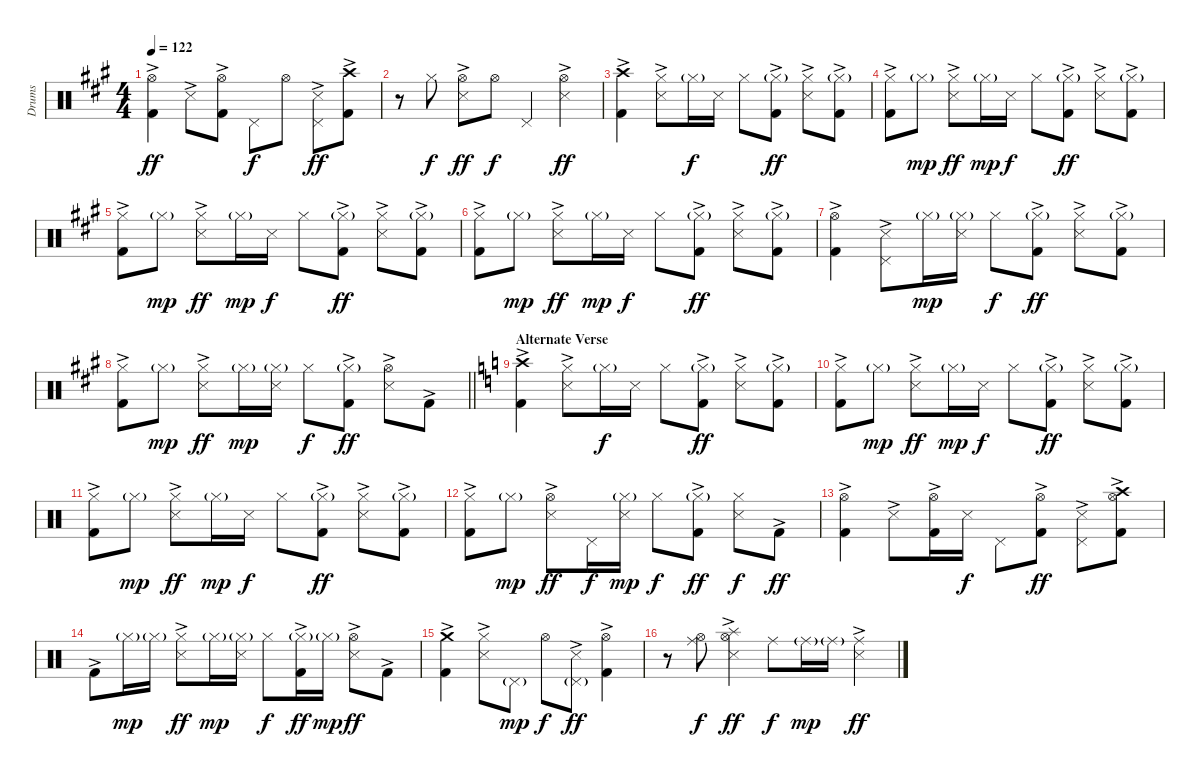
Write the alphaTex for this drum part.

\track ("Drums" "Drums") {instrument percussion}
\staff {score}
\articulation defaults
\ts (4 4)
\tempo 122
\clef neutral
\ks a
("Hi-Hat (open)" "Kick (hit) 2"{ac}).4{dy ff} "Snare (side stick) 3"{ac}.8 ("Hi-Hat (open)" "Kick (hit) 2"{ac}).8 "Pedal Hi-Hat (hit)".8{dy f} "Hi-Hat (open)".8 ("Pedal Hi-Hat (hit)" "Snare (side stick) 3"{ac}).8{dy ff} ("Crash high (hit)" "Kick (hit) 2"{ac}).8 |
r.8 "Hi-Hat (closed)".8{dy f} ("Hi-Hat (open)" "Snare (side stick) 3"{ac}).8{dy ff} "Hi-Hat (open)".8{dy f} "Pedal Hi-Hat (hit)".4 ("Hi-Hat (open)" "Snare (side stick) 3"{ac}).4{dy ff} |
("Crash high (hit)" "Kick (hit) 2"{ac}).4 ("Hi-Hat (closed)" "Snare (side stick) 3"{ac}).8 "Hi-Hat (closed)"{g}.16{dy f} "Snare (side stick) 3".16 "Hi-Hat (closed)".8 ("Hi-Hat (closed)"{g} "Kick (hit) 2"{ac}).8{dy ff} ("Hi-Hat (closed)" "Snare (side stick) 3"{ac}).8 ("Hi-Hat (closed)"{g} "Kick (hit) 2"{ac}).8 |
("Hi-Hat (closed)" "Kick (hit) 2"{ac}).8 "Hi-Hat (closed)"{g}.8{dy mp} ("Hi-Hat (closed)" "Snare (side stick) 3"{ac}).8{dy ff} "Hi-Hat (closed)"{g}.16{dy mp} "Snare (side stick) 3".16{dy f} "Hi-Hat (closed)".8 ("Hi-Hat (closed)"{g} "Kick (hit) 2"{ac}).8{dy ff} ("Hi-Hat (closed)" "Snare (side stick) 3"{ac}).8 ("Hi-Hat (closed)"{g} "Kick (hit) 2"{ac}).8 |
("Hi-Hat (closed)" "Kick (hit) 2"{ac}).8 "Hi-Hat (closed)"{g}.8{dy mp} ("Hi-Hat (closed)" "Snare (side stick) 3"{ac}).8{dy ff} "Hi-Hat (closed)"{g}.16{dy mp} "Snare (side stick) 3".16{dy f} "Hi-Hat (closed)".8 ("Hi-Hat (closed)"{g} "Kick (hit) 2"{ac}).8{dy ff} ("Hi-Hat (closed)" "Snare (side stick) 3"{ac}).8 ("Hi-Hat (closed)"{g} "Kick (hit) 2"{ac}).8 |
("Hi-Hat (closed)" "Kick (hit) 2"{ac}).8 "Hi-Hat (closed)"{g}.8{dy mp} ("Hi-Hat (closed)" "Snare (side stick) 3"{ac}).8{dy ff} "Hi-Hat (closed)"{g}.16{dy mp} "Snare (side stick) 3".16{dy f} "Hi-Hat (closed)".8 ("Hi-Hat (closed)"{g} "Kick (hit) 2"{ac}).8{dy ff} ("Hi-Hat (closed)" "Snare (side stick) 3"{ac}).8 ("Hi-Hat (closed)"{g} "Kick (hit) 2"{ac}).8 |
("Hi-Hat (open)" "Kick (hit) 2"{ac}).4 ("Pedal Hi-Hat (hit)" "Snare (side stick) 3"{ac}).8 "Hi-Hat (closed)"{g}.16{dy mp} ("Hi-Hat (closed)"{g} "Snare (side stick) 3").16 "Hi-Hat (closed)".8{dy f} ("Hi-Hat (closed)"{g} "Kick (hit) 2"{ac}).8{dy ff} ("Hi-Hat (closed)" "Snare (side stick) 3"{ac}).8 ("Hi-Hat (closed)"{g} "Kick (hit) 2"{ac}).8 |
\barLineRight lightlight
("Hi-Hat (closed)" "Kick (hit) 2"{ac}).8 "Hi-Hat (closed)"{g}.8{dy mp} ("Hi-Hat (closed)" "Snare (side stick) 3"{ac}).8{dy ff} "Hi-Hat (closed)"{g}.16{dy mp} ("Hi-Hat (closed)"{g} "Snare (side stick) 3").16 "Hi-Hat (closed)".8{dy f} ("Hi-Hat (closed)"{g} "Kick (hit) 2"{ac}).8{dy ff} ("Hi-Hat (open)" "Snare (side stick) 3"{ac}).8 "Kick (hit) 2"{ac}.8 |
\section ("" "Alternate Verse")
\ks c
("Crash high (hit)" "Kick (hit) 2"{ac}).4 ("Hi-Hat (closed)" "Snare (side stick) 3"{ac}).8 "Hi-Hat (closed)"{g}.16{dy f} "Snare (side stick) 3".16 "Hi-Hat (closed)".8 ("Hi-Hat (closed)"{g} "Kick (hit) 2"{ac}).8{dy ff} ("Hi-Hat (closed)" "Snare (side stick) 3"{ac}).8 ("Hi-Hat (closed)"{g} "Kick (hit) 2"{ac}).8 |
("Hi-Hat (closed)" "Kick (hit) 2"{ac}).8 "Hi-Hat (closed)"{g}.8{dy mp} ("Hi-Hat (closed)" "Snare (side stick) 3"{ac}).8{dy ff} "Hi-Hat (closed)"{g}.16{dy mp} "Snare (side stick) 3".16{dy f} "Hi-Hat (closed)".8 ("Hi-Hat (closed)"{g} "Kick (hit) 2"{ac}).8{dy ff} ("Hi-Hat (closed)" "Snare (side stick) 3"{ac}).8 ("Hi-Hat (closed)"{g} "Kick (hit) 2"{ac}).8 |
("Hi-Hat (closed)" "Kick (hit) 2"{ac}).8 "Hi-Hat (closed)"{g}.8{dy mp} ("Hi-Hat (closed)" "Snare (side stick) 3"{ac}).8{dy ff} "Hi-Hat (closed)"{g}.16{dy mp} "Snare (side stick) 3".16{dy f} "Hi-Hat (closed)".8 ("Hi-Hat (closed)"{g} "Kick (hit) 2"{ac}).8{dy ff} ("Hi-Hat (closed)" "Snare (side stick) 3"{ac}).8 ("Hi-Hat (closed)"{g} "Kick (hit) 2"{ac}).8 |
("Hi-Hat (closed)" "Kick (hit) 2"{ac}).8 "Hi-Hat (closed)"{g}.8{dy mp} ("Hi-Hat (open)" "Snare (side stick) 3"{ac}).8{dy ff} "Pedal Hi-Hat (hit)".16{dy f} ("Hi-Hat (closed)"{g} "Snare (side stick) 3").16{dy mp} "Hi-Hat (closed)".8{dy f} ("Hi-Hat (closed)"{g} "Kick (hit) 2"{ac}).8{dy ff} ("Hi-Hat (closed)" "Snare (side stick) 3").8{dy f} "Kick (hit) 2"{ac}.8{dy ff} |
("Hi-Hat (open)" "Kick (hit) 2"{ac}).4 "Snare (side stick) 3"{ac}.8 ("Hi-Hat (open)" "Kick (hit) 2"{ac}).16 "Snare (side stick) 3".16{dy f} "Pedal Hi-Hat (hit)".8 ("Hi-Hat (open)" "Kick (hit) 2"{ac}).8{dy ff} ("Pedal Hi-Hat (hit)" "Snare (side stick) 3"{ac}).8 ("Hi-Hat (open)" "Crash high (hit)" "Kick (hit) 2"{ac}).8 |
"Kick (hit) 2"{ac}.8 "Hi-Hat (closed)"{g}.16{dy mp} "Hi-Hat (closed)"{g}.16 ("Hi-Hat (closed)" "Snare (side stick) 3"{ac}).8{dy ff} "Hi-Hat (closed)"{g}.16{dy mp} ("Hi-Hat (closed)"{g} "Snare (side stick) 3").16 "Hi-Hat (closed)".8{dy f} ("Hi-Hat (closed)"{g} "Kick (hit) 2"{ac}).16{dy ff} "Hi-Hat (closed)"{g}.16{dy mp} ("Hi-Hat (open)" "Snare (side stick) 3"{ac}).8{dy ff} "Kick (hit) 2"{ac}.8 |
("Crash medium (hit)" "Kick (hit) 2"{ac}).4 ("Hi-Hat (closed)" "Snare (side stick) 3"{ac}).8 "Pedal Hi-Hat (hit)"{g}.8{dy mp} "Hi-Hat (open)".8{dy f} ("Pedal Hi-Hat (hit)"{g} "Snare (side stick) 3"{ac}).8{dy ff} ("Hi-Hat (open)" "Kick (hit) 2"{ac}).4 |
r.8 ("Hi-Hat (open)" "Ride (middle)").8{dy f} ("Hi-Hat (open)" "Splash (hit)" "Snare (side stick) 3"{ac}).4{dy ff} "Ride (middle)".8{dy f} "Ride (middle)"{g}.16{dy mp} "Ride (middle)"{g}.16 ("Ride (middle)" "Snare (side stick) 3"{ac}).4{dy ff}
